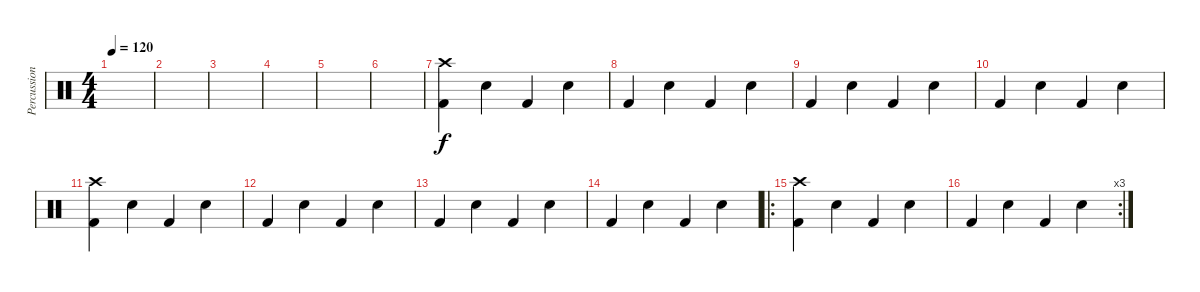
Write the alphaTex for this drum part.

\track ("Percussions" "Percussion") {instrument percussion}
\staff {score}
\articulation defaults
\ts (4 4)
\tempo 120
\clef neutral
\ks c
|
|
|
|
|
|
("Crash high (hit)" "Kick (hit) 2").4 "Snare (hit) 2".4 "Kick (hit) 2".4 "Snare (hit) 2".4 |
"Kick (hit) 2".4 "Snare (hit) 2".4 "Kick (hit) 2".4 "Snare (hit) 2".4 |
"Kick (hit) 2".4 "Snare (hit) 2".4 "Kick (hit) 2".4 "Snare (hit) 2".4 |
"Kick (hit) 2".4 "Snare (hit) 2".4 "Kick (hit) 2".4 "Snare (hit) 2".4 |
("Crash high (hit)" "Kick (hit) 2").4 "Snare (hit) 2".4 "Kick (hit) 2".4 "Snare (hit) 2".4 |
"Kick (hit) 2".4 "Snare (hit) 2".4 "Kick (hit) 2".4 "Snare (hit) 2".4 |
"Kick (hit) 2".4 "Snare (hit) 2".4 "Kick (hit) 2".4 "Snare (hit) 2".4 |
"Kick (hit) 2".4 "Snare (hit) 2".4 "Kick (hit) 2".4 "Snare (hit) 2".4 |
\ro
("Crash high (hit)" "Kick (hit) 2").4 "Snare (hit) 2".4 "Kick (hit) 2".4 "Snare (hit) 2".4 |
\rc 3 "Kick (hit) 2".4 "Snare (hit) 2".4 "Kick (hit) 2".4 "Snare (hit) 2".4
